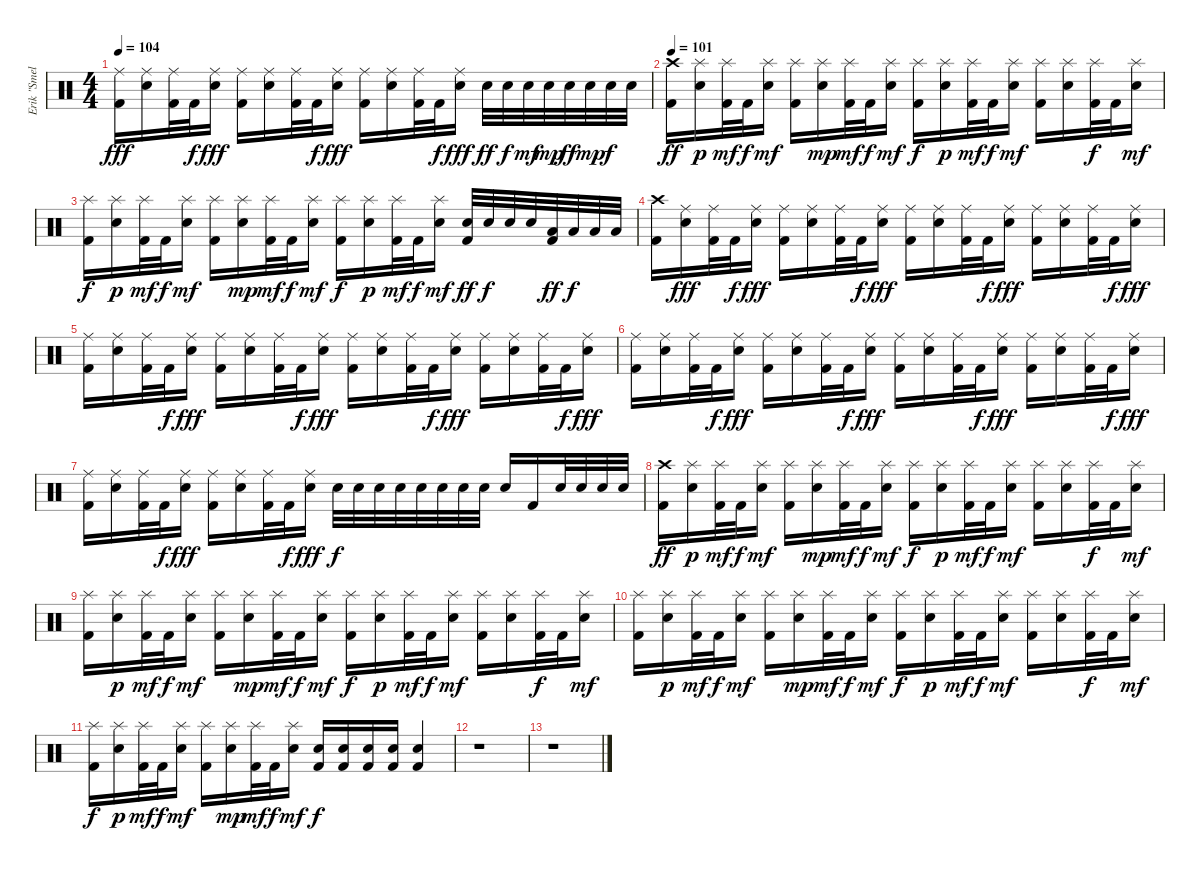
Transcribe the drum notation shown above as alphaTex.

\track ("Erik \"Smelly\" - Drums" "Erik \"Smel") {instrument percussion}
\staff {score}
\articulation defaults
\ts (4 4)
\tempo 104
\clef neutral
\ks c
("Ride (middle)" "Kick (hit) 2").16{dy fff} ("Ride (middle)" "Electric Snare (hit)").16 ("Ride (middle)" "Kick (hit) 2").32 "Kick (hit) 2".32{dy f} ("Ride (middle)" "Electric Snare (hit)").16{dy fff} ("Ride (middle)" "Kick (hit) 2").16 ("Ride (middle)" "Electric Snare (hit)").16 ("Ride (middle)" "Kick (hit) 2").32 "Kick (hit) 2".32{dy f} ("Ride (middle)" "Electric Snare (hit)").16{dy fff} ("Ride (middle)" "Kick (hit) 2").16 ("Ride (middle)" "Electric Snare (hit)").16 ("Ride (middle)" "Kick (hit) 2").32 "Kick (hit) 2".32{dy f} ("Ride (middle)" "Electric Snare (hit)").16{dy fff} "Electric Snare (hit)".32{dy ff} "Electric Snare (hit)".32{dy f} "Electric Snare (hit)".32{dy mf} "Electric Snare (hit)".32{dy mp} "Electric Snare (hit)".32{dy ff} "Electric Snare (hit)".32{dy mp} "Electric Snare (hit)".32{dy f} "Electric Snare (hit)".32 |
\tempo 101
("Crash high (hit)" "Kick (hit) 2").16{dy ff} ("Splash (hit)" "Electric Snare (hit)").16{dy p} ("Splash (hit)" "Kick (hit) 2").32{dy mf} "Kick (hit) 2".32{dy f} ("Splash (hit)" "Electric Snare (hit)").16{dy mf} ("Splash (hit)" "Kick (hit) 2").16 ("Splash (hit)" "Electric Snare (hit)").16{dy mp} ("Splash (hit)" "Kick (hit) 2").32{dy mf} "Kick (hit) 2".32{dy f} ("Splash (hit)" "Electric Snare (hit)").16{dy mf} ("Splash (hit)" "Kick (hit) 2").16{dy f} ("Splash (hit)" "Electric Snare (hit)").16{dy p} ("Splash (hit)" "Kick (hit) 2").32{dy mf} "Kick (hit) 2".32{dy f} ("Splash (hit)" "Electric Snare (hit)").16{dy mf} ("Splash (hit)" "Kick (hit) 2").16 ("Splash (hit)" "Electric Snare (hit)").16 ("Splash (hit)" "Kick (hit) 2").32{dy f} "Kick (hit) 2".32 ("Splash (hit)" "Electric Snare (hit)").16{dy mf} |
("Splash (hit)" "Kick (hit) 2").16{dy f} ("Splash (hit)" "Electric Snare (hit)").16{dy p} ("Splash (hit)" "Kick (hit) 2").32{dy mf} "Kick (hit) 2".32{dy f} ("Splash (hit)" "Electric Snare (hit)").16{dy mf} ("Splash (hit)" "Kick (hit) 2").16 ("Splash (hit)" "Electric Snare (hit)").16{dy mp} ("Splash (hit)" "Kick (hit) 2").32{dy mf} "Kick (hit) 2".32{dy f} ("Splash (hit)" "Electric Snare (hit)").16{dy mf} ("Splash (hit)" "Kick (hit) 2").16{dy f} ("Splash (hit)" "Electric Snare (hit)").16{dy p} ("Splash (hit)" "Kick (hit) 2").32{dy mf} "Kick (hit) 2".32{dy f} ("Splash (hit)" "Electric Snare (hit)").16{dy mf} ("Electric Snare (hit)" "Kick (hit) 2").32{dy ff} "Electric Snare (hit)".32{dy f} "Electric Snare (hit)".32 "Electric Snare (hit)".32 ("Low Tom (hit)" "Kick (hit) 2").32{dy ff} "Low Tom (hit)".32{dy f} "Low Tom (hit)".32 "Low Tom (hit)".32 |
("Crash high (hit)" "Kick (hit) 2").16 ("Ride (middle)" "Electric Snare (hit)").16{dy fff} ("Ride (middle)" "Kick (hit) 2").32 "Kick (hit) 2".32{dy f} ("Ride (middle)" "Electric Snare (hit)").16{dy fff} ("Ride (middle)" "Kick (hit) 2").16 ("Ride (middle)" "Electric Snare (hit)").16 ("Ride (middle)" "Kick (hit) 2").32 "Kick (hit) 2".32{dy f} ("Ride (middle)" "Electric Snare (hit)").16{dy fff} ("Ride (middle)" "Kick (hit) 2").16 ("Ride (middle)" "Electric Snare (hit)").16 ("Ride (middle)" "Kick (hit) 2").32 "Kick (hit) 2".32{dy f} ("Ride (middle)" "Electric Snare (hit)").16{dy fff} ("Ride (middle)" "Kick (hit) 2").16 ("Ride (middle)" "Electric Snare (hit)").16 ("Ride (middle)" "Kick (hit) 2").32 "Kick (hit) 2".32{dy f} ("Ride (middle)" "Electric Snare (hit)").16{dy fff} |
("Ride (middle)" "Kick (hit) 2").16 ("Ride (middle)" "Electric Snare (hit)").16 ("Ride (middle)" "Kick (hit) 2").32 "Kick (hit) 2".32{dy f} ("Ride (middle)" "Electric Snare (hit)").16{dy fff} ("Ride (middle)" "Kick (hit) 2").16 ("Ride (middle)" "Electric Snare (hit)").16 ("Ride (middle)" "Kick (hit) 2").32 "Kick (hit) 2".32{dy f} ("Ride (middle)" "Electric Snare (hit)").16{dy fff} ("Ride (middle)" "Kick (hit) 2").16 ("Ride (middle)" "Electric Snare (hit)").16 ("Ride (middle)" "Kick (hit) 2").32 "Kick (hit) 2".32{dy f} ("Ride (middle)" "Electric Snare (hit)").16{dy fff} ("Ride (middle)" "Kick (hit) 2").16 ("Ride (middle)" "Electric Snare (hit)").16 ("Ride (middle)" "Kick (hit) 2").32 "Kick (hit) 2".32{dy f} ("Ride (middle)" "Electric Snare (hit)").16{dy fff} |
("Ride (middle)" "Kick (hit) 2").16 ("Ride (middle)" "Electric Snare (hit)").16 ("Ride (middle)" "Kick (hit) 2").32 "Kick (hit) 2".32{dy f} ("Ride (middle)" "Electric Snare (hit)").16{dy fff} ("Ride (middle)" "Kick (hit) 2").16 ("Ride (middle)" "Electric Snare (hit)").16 ("Ride (middle)" "Kick (hit) 2").32 "Kick (hit) 2".32{dy f} ("Ride (middle)" "Electric Snare (hit)").16{dy fff} ("Ride (middle)" "Kick (hit) 2").16 ("Ride (middle)" "Electric Snare (hit)").16 ("Ride (middle)" "Kick (hit) 2").32 "Kick (hit) 2".32{dy f} ("Ride (middle)" "Electric Snare (hit)").16{dy fff} ("Ride (middle)" "Kick (hit) 2").16 ("Ride (middle)" "Electric Snare (hit)").16 ("Ride (middle)" "Kick (hit) 2").32 "Kick (hit) 2".32{dy f} ("Ride (middle)" "Electric Snare (hit)").16{dy fff} |
("Ride (middle)" "Kick (hit) 2").16 ("Ride (middle)" "Electric Snare (hit)").16 ("Ride (middle)" "Kick (hit) 2").32 "Kick (hit) 2".32{dy f} ("Ride (middle)" "Electric Snare (hit)").16{dy fff} ("Ride (middle)" "Kick (hit) 2").16 ("Ride (middle)" "Electric Snare (hit)").16 ("Ride (middle)" "Kick (hit) 2").32 "Kick (hit) 2".32{dy f} ("Ride (middle)" "Electric Snare (hit)").16{dy fff} "Electric Snare (hit)".32{dy f} "Electric Snare (hit)".32 "Electric Snare (hit)".32 "Electric Snare (hit)".32 "Electric Snare (hit)".32 "Electric Snare (hit)".32 "Electric Snare (hit)".32 "Electric Snare (hit)".32 "Electric Snare (hit)".16 "Kick (hit) 2".16 "Electric Snare (hit)".32 "Electric Snare (hit)".32 "Electric Snare (hit)".32 "Electric Snare (hit)".32 |
("Crash high (hit)" "Kick (hit) 2").16{dy ff} ("Splash (hit)" "Electric Snare (hit)").16{dy p} ("Splash (hit)" "Kick (hit) 2").32{dy mf} "Kick (hit) 2".32{dy f} ("Splash (hit)" "Electric Snare (hit)").16{dy mf} ("Splash (hit)" "Kick (hit) 2").16 ("Splash (hit)" "Electric Snare (hit)").16{dy mp} ("Splash (hit)" "Kick (hit) 2").32{dy mf} "Kick (hit) 2".32{dy f} ("Splash (hit)" "Electric Snare (hit)").16{dy mf} ("Splash (hit)" "Kick (hit) 2").16{dy f} ("Splash (hit)" "Electric Snare (hit)").16{dy p} ("Splash (hit)" "Kick (hit) 2").32{dy mf} "Kick (hit) 2".32{dy f} ("Splash (hit)" "Electric Snare (hit)").16{dy mf} ("Splash (hit)" "Kick (hit) 2").16 ("Splash (hit)" "Electric Snare (hit)").16 ("Splash (hit)" "Kick (hit) 2").32{dy f} "Kick (hit) 2".32 ("Splash (hit)" "Electric Snare (hit)").16{dy mf} |
("Splash (hit)" "Kick (hit) 2").16 ("Splash (hit)" "Electric Snare (hit)").16{dy p} ("Splash (hit)" "Kick (hit) 2").32{dy mf} "Kick (hit) 2".32{dy f} ("Splash (hit)" "Electric Snare (hit)").16{dy mf} ("Splash (hit)" "Kick (hit) 2").16 ("Splash (hit)" "Electric Snare (hit)").16{dy mp} ("Splash (hit)" "Kick (hit) 2").32{dy mf} "Kick (hit) 2".32{dy f} ("Splash (hit)" "Electric Snare (hit)").16{dy mf} ("Splash (hit)" "Kick (hit) 2").16{dy f} ("Splash (hit)" "Electric Snare (hit)").16{dy p} ("Splash (hit)" "Kick (hit) 2").32{dy mf} "Kick (hit) 2".32{dy f} ("Splash (hit)" "Electric Snare (hit)").16{dy mf} ("Splash (hit)" "Kick (hit) 2").16 ("Splash (hit)" "Electric Snare (hit)").16 ("Splash (hit)" "Kick (hit) 2").32{dy f} "Kick (hit) 2".32 ("Splash (hit)" "Electric Snare (hit)").16{dy mf} |
("Splash (hit)" "Kick (hit) 2").16 ("Splash (hit)" "Electric Snare (hit)").16{dy p} ("Splash (hit)" "Kick (hit) 2").32{dy mf} "Kick (hit) 2".32{dy f} ("Splash (hit)" "Electric Snare (hit)").16{dy mf} ("Splash (hit)" "Kick (hit) 2").16 ("Splash (hit)" "Electric Snare (hit)").16{dy mp} ("Splash (hit)" "Kick (hit) 2").32{dy mf} "Kick (hit) 2".32{dy f} ("Splash (hit)" "Electric Snare (hit)").16{dy mf} ("Splash (hit)" "Kick (hit) 2").16{dy f} ("Splash (hit)" "Electric Snare (hit)").16{dy p} ("Splash (hit)" "Kick (hit) 2").32{dy mf} "Kick (hit) 2".32{dy f} ("Splash (hit)" "Electric Snare (hit)").16{dy mf} ("Splash (hit)" "Kick (hit) 2").16 ("Splash (hit)" "Electric Snare (hit)").16 ("Splash (hit)" "Kick (hit) 2").32{dy f} "Kick (hit) 2".32 ("Splash (hit)" "Electric Snare (hit)").16{dy mf} |
("Splash (hit)" "Kick (hit) 2").16{dy f} ("Splash (hit)" "Electric Snare (hit)").16{dy p} ("Splash (hit)" "Kick (hit) 2").32{dy mf} "Kick (hit) 2".32{dy f} ("Splash (hit)" "Electric Snare (hit)").16{dy mf} ("Splash (hit)" "Kick (hit) 2").16 ("Splash (hit)" "Electric Snare (hit)").16{dy mp} ("Splash (hit)" "Kick (hit) 2").32{dy mf} "Kick (hit) 2".32{dy f} ("Splash (hit)" "Electric Snare (hit)").16{dy mf} ("Electric Snare (hit)" "Kick (hit) 2").16{dy f} ("Electric Snare (hit)" "Kick (hit) 2").16 ("Electric Snare (hit)" "Kick (hit) 2").16 ("Electric Snare (hit)" "Kick (hit) 2").16 ("Electric Snare (hit)" "Kick (hit) 2").4 |
r.1 |
r.1
